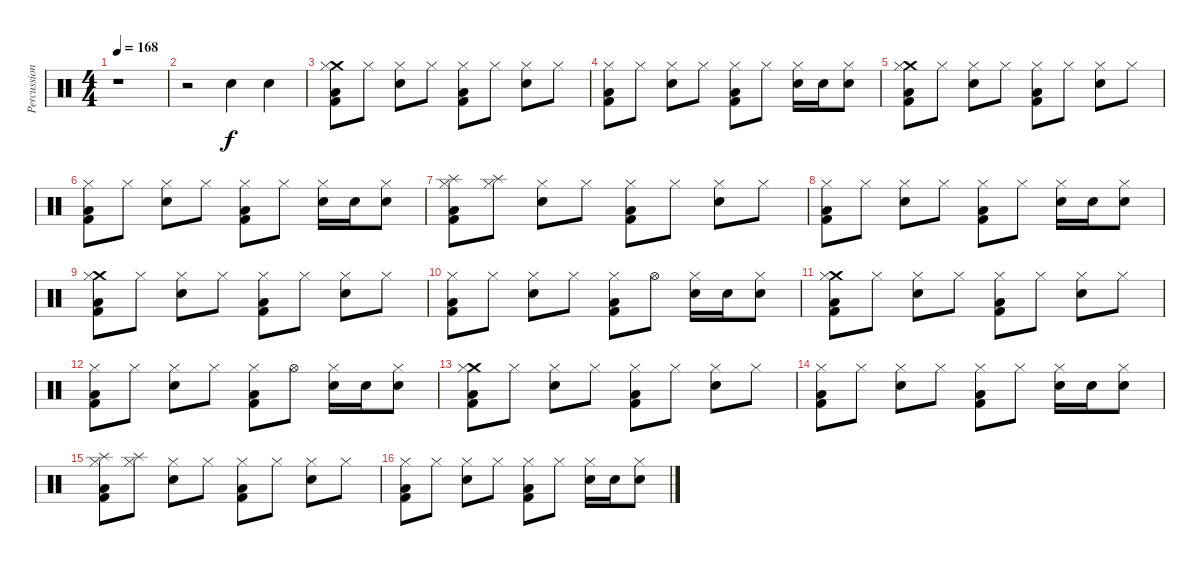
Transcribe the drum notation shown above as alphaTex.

\track ("Percussions" "Percussion") {instrument percussion}
\staff {score}
\articulation defaults
\ts (4 4)
\tempo 168
\clef neutral
\ks c
r.1{dy f} |
r.2 "Snare (hit) 2".4 "Snare (hit) 2".4 |
("Kick (hit) 2" "Low Floor Tom (hit)" "Crash medium (hit)" "Hi-Hat (closed)").8 "Hi-Hat (closed)".8 ("Snare (hit) 2" "Hi-Hat (closed)").8 "Hi-Hat (closed)".8 ("Kick (hit) 2" "Low Floor Tom (hit)" "Hi-Hat (closed)").8 "Hi-Hat (closed)".8 ("Snare (hit) 2" "Hi-Hat (closed)").8 "Hi-Hat (closed)".8 |
("Kick (hit) 2" "Low Floor Tom (hit)" "Hi-Hat (closed)").8 "Hi-Hat (closed)".8 ("Snare (hit) 2" "Hi-Hat (closed)").8 "Hi-Hat (closed)".8 ("Kick (hit) 2" "Low Floor Tom (hit)" "Hi-Hat (closed)").8 "Hi-Hat (closed)".8 ("Snare (hit) 2" "Hi-Hat (closed)").16 "Snare (hit) 2".16 ("Snare (hit) 2" "Hi-Hat (closed)").8 |
("Kick (hit) 2" "Low Floor Tom (hit)" "Crash medium (hit)" "Hi-Hat (closed)").8 "Hi-Hat (closed)".8 ("Snare (hit) 2" "Hi-Hat (closed)").8 "Hi-Hat (closed)".8 ("Kick (hit) 2" "Low Floor Tom (hit)" "Hi-Hat (closed)").8 "Hi-Hat (closed)".8 ("Snare (hit) 2" "Hi-Hat (closed)").8 "Hi-Hat (closed)".8 |
("Kick (hit) 2" "Low Floor Tom (hit)" "Hi-Hat (closed)").8 "Hi-Hat (closed)".8 ("Snare (hit) 2" "Hi-Hat (closed)").8 "Hi-Hat (closed)".8 ("Kick (hit) 2" "Low Floor Tom (hit)" "Hi-Hat (closed)").8 "Hi-Hat (closed)".8 ("Snare (hit) 2" "Hi-Hat (closed)").16 "Snare (hit) 2".16 ("Snare (hit) 2" "Hi-Hat (closed)").8 |
("Kick (hit) 2" "Low Floor Tom (hit)" "Splash (hit)" "Hi-Hat (closed)").8 ("Splash (hit)" "Hi-Hat (closed)").8 ("Snare (hit) 2" "Hi-Hat (closed)").8 "Hi-Hat (closed)".8 ("Kick (hit) 2" "Low Floor Tom (hit)" "Hi-Hat (closed)").8 "Hi-Hat (closed)".8 ("Snare (hit) 2" "Hi-Hat (closed)").8 "Hi-Hat (closed)".8 |
("Kick (hit) 2" "Low Floor Tom (hit)" "Hi-Hat (closed)").8 "Hi-Hat (closed)".8 ("Snare (hit) 2" "Hi-Hat (closed)").8 "Hi-Hat (closed)".8 ("Kick (hit) 2" "Low Floor Tom (hit)" "Hi-Hat (closed)").8 "Hi-Hat (closed)".8 ("Snare (hit) 2" "Hi-Hat (closed)").16 "Snare (hit) 2".16 ("Snare (hit) 2" "Hi-Hat (closed)").8 |
("Kick (hit) 2" "Low Floor Tom (hit)" "Crash medium (hit)" "Hi-Hat (closed)").8 "Hi-Hat (closed)".8 ("Snare (hit) 2" "Hi-Hat (closed)").8 "Hi-Hat (closed)".8 ("Kick (hit) 2" "Low Floor Tom (hit)" "Hi-Hat (closed)").8 "Hi-Hat (closed)".8 ("Snare (hit) 2" "Hi-Hat (closed)").8 "Hi-Hat (closed)".8 |
("Kick (hit) 2" "Low Floor Tom (hit)" "Hi-Hat (closed)").8 "Hi-Hat (closed)".8 ("Snare (hit) 2" "Hi-Hat (closed)").8 "Hi-Hat (closed)".8 ("Kick (hit) 2" "Low Floor Tom (hit)" "Hi-Hat (closed)").8 "Hi-Hat (open)".8 ("Snare (hit) 2" "Hi-Hat (closed)").16 "Snare (hit) 2".16 ("Snare (hit) 2" "Hi-Hat (closed)").8 |
("Kick (hit) 2" "Low Floor Tom (hit)" "Crash medium (hit)" "Hi-Hat (closed)").8 "Hi-Hat (closed)".8 ("Snare (hit) 2" "Hi-Hat (closed)").8 "Hi-Hat (closed)".8 ("Kick (hit) 2" "Low Floor Tom (hit)" "Hi-Hat (closed)").8 "Hi-Hat (closed)".8 ("Snare (hit) 2" "Hi-Hat (closed)").8 "Hi-Hat (closed)".8 |
("Kick (hit) 2" "Low Floor Tom (hit)" "Hi-Hat (closed)").8 "Hi-Hat (closed)".8 ("Snare (hit) 2" "Hi-Hat (closed)").8 "Hi-Hat (closed)".8 ("Kick (hit) 2" "Low Floor Tom (hit)" "Hi-Hat (closed)").8 "Hi-Hat (open)".8 ("Snare (hit) 2" "Hi-Hat (closed)").16 "Snare (hit) 2".16 ("Snare (hit) 2" "Hi-Hat (closed)").8 |
("Kick (hit) 2" "Low Floor Tom (hit)" "Crash medium (hit)" "Hi-Hat (closed)").8 "Hi-Hat (closed)".8 ("Snare (hit) 2" "Hi-Hat (closed)").8 "Hi-Hat (closed)".8 ("Kick (hit) 2" "Low Floor Tom (hit)" "Hi-Hat (closed)").8 "Hi-Hat (closed)".8 ("Snare (hit) 2" "Hi-Hat (closed)").8 "Hi-Hat (closed)".8 |
("Kick (hit) 2" "Low Floor Tom (hit)" "Hi-Hat (closed)").8 "Hi-Hat (closed)".8 ("Snare (hit) 2" "Hi-Hat (closed)").8 "Hi-Hat (closed)".8 ("Kick (hit) 2" "Low Floor Tom (hit)" "Hi-Hat (closed)").8 "Hi-Hat (closed)".8 ("Snare (hit) 2" "Hi-Hat (closed)").16 "Snare (hit) 2".16 ("Snare (hit) 2" "Hi-Hat (closed)").8 |
("Kick (hit) 2" "Low Floor Tom (hit)" "Splash (hit)" "Hi-Hat (closed)").8 ("Splash (hit)" "Hi-Hat (closed)").8 ("Snare (hit) 2" "Hi-Hat (closed)").8 "Hi-Hat (closed)".8 ("Kick (hit) 2" "Low Floor Tom (hit)" "Hi-Hat (closed)").8 "Hi-Hat (closed)".8 ("Snare (hit) 2" "Hi-Hat (closed)").8 "Hi-Hat (closed)".8 |
("Kick (hit) 2" "Low Floor Tom (hit)" "Hi-Hat (closed)").8 "Hi-Hat (closed)".8 ("Snare (hit) 2" "Hi-Hat (closed)").8 "Hi-Hat (closed)".8 ("Kick (hit) 2" "Low Floor Tom (hit)" "Hi-Hat (closed)").8 "Hi-Hat (closed)".8 ("Snare (hit) 2" "Hi-Hat (closed)").16 "Snare (hit) 2".16 ("Snare (hit) 2" "Hi-Hat (closed)").8
